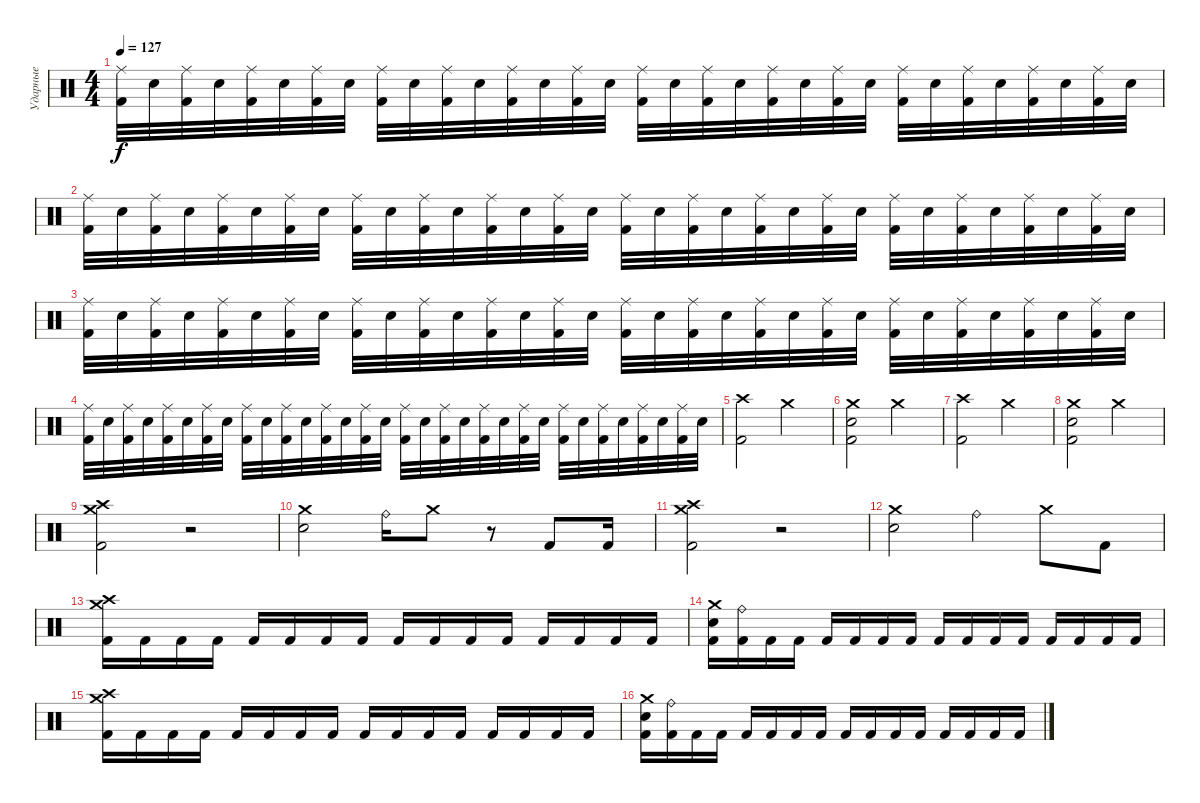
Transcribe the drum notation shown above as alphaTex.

\track ("Ударные" "Ударные") {instrument percussion bank 1}
\staff {score}
\articulation defaults
\ts (4 4)
\tempo 127
\clef neutral
\ks c
("Ride (middle)" "Kick (hit) 2").32{dy f} "Electric Snare (hit)".32 ("Ride (middle)" "Kick (hit) 2").32 "Electric Snare (hit)".32 ("Ride (middle)" "Kick (hit) 2").32 "Electric Snare (hit)".32 ("Ride (middle)" "Kick (hit) 2").32 "Electric Snare (hit)".32 ("Ride (middle)" "Kick (hit) 2").32 "Electric Snare (hit)".32 ("Ride (middle)" "Kick (hit) 2").32 "Electric Snare (hit)".32 ("Ride (middle)" "Kick (hit) 2").32 "Electric Snare (hit)".32 ("Ride (middle)" "Kick (hit) 2").32 "Electric Snare (hit)".32 ("Ride (middle)" "Kick (hit) 2").32 "Electric Snare (hit)".32 ("Ride (middle)" "Kick (hit) 2").32 "Electric Snare (hit)".32 ("Ride (middle)" "Kick (hit) 2").32 "Electric Snare (hit)".32 ("Ride (middle)" "Kick (hit) 2").32 "Electric Snare (hit)".32 ("Ride (middle)" "Kick (hit) 2").32 "Electric Snare (hit)".32 ("Ride (middle)" "Kick (hit) 2").32 "Electric Snare (hit)".32 ("Ride (middle)" "Kick (hit) 2").32 "Electric Snare (hit)".32 ("Ride (middle)" "Kick (hit) 2").32 "Electric Snare (hit)".32 |
("Ride (middle)" "Kick (hit) 2").32 "Electric Snare (hit)".32 ("Ride (middle)" "Kick (hit) 2").32 "Electric Snare (hit)".32 ("Ride (middle)" "Kick (hit) 2").32 "Electric Snare (hit)".32 ("Ride (middle)" "Kick (hit) 2").32 "Electric Snare (hit)".32 ("Ride (middle)" "Kick (hit) 2").32 "Electric Snare (hit)".32 ("Ride (middle)" "Kick (hit) 2").32 "Electric Snare (hit)".32 ("Ride (middle)" "Kick (hit) 2").32 "Electric Snare (hit)".32 ("Ride (middle)" "Kick (hit) 2").32 "Electric Snare (hit)".32 ("Ride (middle)" "Kick (hit) 2").32 "Electric Snare (hit)".32 ("Ride (middle)" "Kick (hit) 2").32 "Electric Snare (hit)".32 ("Ride (middle)" "Kick (hit) 2").32 "Electric Snare (hit)".32 ("Ride (middle)" "Kick (hit) 2").32 "Electric Snare (hit)".32 ("Ride (middle)" "Kick (hit) 2").32 "Electric Snare (hit)".32 ("Ride (middle)" "Kick (hit) 2").32 "Electric Snare (hit)".32 ("Ride (middle)" "Kick (hit) 2").32 "Electric Snare (hit)".32 ("Ride (middle)" "Kick (hit) 2").32 "Electric Snare (hit)".32 |
("Ride (middle)" "Kick (hit) 2").32 "Electric Snare (hit)".32 ("Ride (middle)" "Kick (hit) 2").32 "Electric Snare (hit)".32 ("Ride (middle)" "Kick (hit) 2").32 "Electric Snare (hit)".32 ("Ride (middle)" "Kick (hit) 2").32 "Electric Snare (hit)".32 ("Ride (middle)" "Kick (hit) 2").32 "Electric Snare (hit)".32 ("Ride (middle)" "Kick (hit) 2").32 "Electric Snare (hit)".32 ("Ride (middle)" "Kick (hit) 2").32 "Electric Snare (hit)".32 ("Ride (middle)" "Kick (hit) 2").32 "Electric Snare (hit)".32 ("Ride (middle)" "Kick (hit) 2").32 "Electric Snare (hit)".32 ("Ride (middle)" "Kick (hit) 2").32 "Electric Snare (hit)".32 ("Ride (middle)" "Kick (hit) 2").32 "Electric Snare (hit)".32 ("Ride (middle)" "Kick (hit) 2").32 "Electric Snare (hit)".32 ("Ride (middle)" "Kick (hit) 2").32 "Electric Snare (hit)".32 ("Ride (middle)" "Kick (hit) 2").32 "Electric Snare (hit)".32 ("Ride (middle)" "Kick (hit) 2").32 "Electric Snare (hit)".32 ("Ride (middle)" "Kick (hit) 2").32 "Electric Snare (hit)".32 |
("Ride (middle)" "Kick (hit) 2").32 "Electric Snare (hit)".32 ("Ride (middle)" "Kick (hit) 2").32 "Electric Snare (hit)".32 ("Ride (middle)" "Kick (hit) 2").32 "Electric Snare (hit)".32 ("Ride (middle)" "Kick (hit) 2").32 "Electric Snare (hit)".32 ("Ride (middle)" "Kick (hit) 2").32 "Electric Snare (hit)".32 ("Ride (middle)" "Kick (hit) 2").32 "Electric Snare (hit)".32 ("Ride (middle)" "Kick (hit) 2").32 "Electric Snare (hit)".32 ("Ride (middle)" "Kick (hit) 2").32 "Electric Snare (hit)".32 ("Ride (middle)" "Kick (hit) 2").32 "Electric Snare (hit)".32 ("Ride (middle)" "Kick (hit) 2").32 "Electric Snare (hit)".32 ("Ride (middle)" "Kick (hit) 2").32 "Electric Snare (hit)".32 ("Ride (middle)" "Kick (hit) 2").32 "Electric Snare (hit)".32 ("Ride (middle)" "Kick (hit) 2").32 "Electric Snare (hit)".32 ("Ride (middle)" "Kick (hit) 2").32 "Electric Snare (hit)".32 ("Ride (middle)" "Kick (hit) 2").32 "Electric Snare (hit)".32 ("Ride (middle)" "Kick (hit) 2").32 "Electric Snare (hit)".32 |
("Crash high (hit)" "Kick (hit) 2").2 "Crash medium (hit)".2 |
("Crash medium (hit)" "Electric Snare (hit)" "Kick (hit) 2").2 "Crash medium (hit)".2 |
("Crash high (hit)" "Kick (hit) 2").2 "Crash medium (hit)".2 |
("Crash medium (hit)" "Electric Snare (hit)" "Kick (hit) 2").2 "Crash medium (hit)".2 |
("Crash medium (hit)" "Crash high (hit)" "Kick (hit) 2").2 r.2 |
("Crash medium (hit)" "Electric Snare (hit)").2 "Ride (bell)".16 "Crash medium (hit)".8 r.8 "Kick (hit) 2".8 "Kick (hit) 2".16 |
("Crash medium (hit)" "Crash high (hit)" "Kick (hit) 2").2 r.2 |
("Crash medium (hit)" "Electric Snare (hit)").2 "Ride (bell)".4 "Crash medium (hit)".8 "Kick (hit) 2".8 |
("Crash medium (hit)" "Crash high (hit)" "Kick (hit) 2").16 "Kick (hit) 2".16 "Kick (hit) 2".16 "Kick (hit) 2".16 "Kick (hit) 2".16 "Kick (hit) 2".16 "Kick (hit) 2".16 "Kick (hit) 2".16 "Kick (hit) 2".16 "Kick (hit) 2".16 "Kick (hit) 2".16 "Kick (hit) 2".16 "Kick (hit) 2".16 "Kick (hit) 2".16 "Kick (hit) 2".16 "Kick (hit) 2".16 |
("Crash medium (hit)" "Electric Snare (hit)" "Kick (hit) 2").16 ("Ride (bell)" "Kick (hit) 2").16 "Kick (hit) 2".16 "Kick (hit) 2".16 "Kick (hit) 2".16 "Kick (hit) 2".16 "Kick (hit) 2".16 "Kick (hit) 2".16 "Kick (hit) 2".16 "Kick (hit) 2".16 "Kick (hit) 2".16 "Kick (hit) 2".16 "Kick (hit) 2".16 "Kick (hit) 2".16 "Kick (hit) 2".16 "Kick (hit) 2".16 |
("Crash medium (hit)" "Crash high (hit)" "Kick (hit) 2").16 "Kick (hit) 2".16 "Kick (hit) 2".16 "Kick (hit) 2".16 "Kick (hit) 2".16 "Kick (hit) 2".16 "Kick (hit) 2".16 "Kick (hit) 2".16 "Kick (hit) 2".16 "Kick (hit) 2".16 "Kick (hit) 2".16 "Kick (hit) 2".16 "Kick (hit) 2".16 "Kick (hit) 2".16 "Kick (hit) 2".16 "Kick (hit) 2".16 |
("Crash medium (hit)" "Electric Snare (hit)" "Kick (hit) 2").16 ("Ride (bell)" "Kick (hit) 2").16 "Kick (hit) 2".16 "Kick (hit) 2".16 "Kick (hit) 2".16 "Kick (hit) 2".16 "Kick (hit) 2".16 "Kick (hit) 2".16 "Kick (hit) 2".16 "Kick (hit) 2".16 "Kick (hit) 2".16 "Kick (hit) 2".16 "Kick (hit) 2".16 "Kick (hit) 2".16 "Kick (hit) 2".16 "Kick (hit) 2".16
